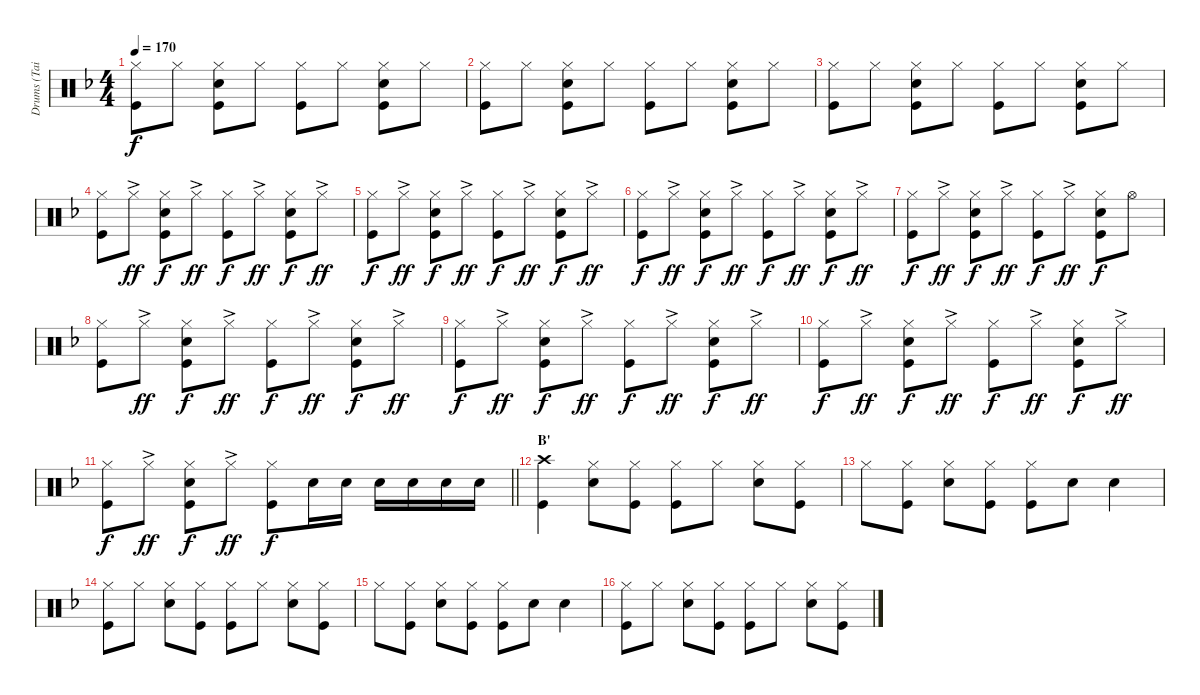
\track ("Drums (Tainaka Ritsu)" "Drums (Tai") {instrument percussion}
\staff {score}
\articulation defaults
\ts (4 4)
\tempo 170
\clef neutral
\ks f
("Hi-Hat (closed)" "Kick (hit)").8{dy f} "Hi-Hat (closed)".8 ("Hi-Hat (closed)" "Snare (hit) 2" "Kick (hit)").8 "Hi-Hat (closed)".8 ("Hi-Hat (closed)" "Kick (hit)").8 "Hi-Hat (closed)".8 ("Hi-Hat (closed)" "Snare (hit) 2" "Kick (hit)").8 "Hi-Hat (closed)".8 |
("Hi-Hat (closed)" "Kick (hit)").8 "Hi-Hat (closed)".8 ("Hi-Hat (closed)" "Snare (hit) 2" "Kick (hit)").8 "Hi-Hat (closed)".8 ("Hi-Hat (closed)" "Kick (hit)").8 "Hi-Hat (closed)".8 ("Hi-Hat (closed)" "Snare (hit) 2" "Kick (hit)").8 "Hi-Hat (closed)".8 |
("Hi-Hat (closed)" "Kick (hit)").8 "Hi-Hat (closed)".8 ("Hi-Hat (closed)" "Snare (hit) 2" "Kick (hit)").8 "Hi-Hat (closed)".8 ("Hi-Hat (closed)" "Kick (hit)").8 "Hi-Hat (closed)".8 ("Hi-Hat (closed)" "Snare (hit) 2" "Kick (hit)").8 "Hi-Hat (closed)".8 |
("Hi-Hat (closed)" "Kick (hit)").8 "Hi-Hat (closed)"{ac}.8{dy ff} ("Hi-Hat (closed)" "Snare (hit) 2" "Kick (hit)").8{dy f} "Hi-Hat (closed)"{ac}.8{dy ff} ("Hi-Hat (closed)" "Kick (hit)").8{dy f} "Hi-Hat (closed)"{ac}.8{dy ff} ("Hi-Hat (closed)" "Snare (hit) 2" "Kick (hit)").8{dy f} "Hi-Hat (closed)"{ac}.8{dy ff} |
("Hi-Hat (closed)" "Kick (hit)").8{dy f} "Hi-Hat (closed)"{ac}.8{dy ff} ("Hi-Hat (closed)" "Snare (hit) 2" "Kick (hit)").8{dy f} "Hi-Hat (closed)"{ac}.8{dy ff} ("Hi-Hat (closed)" "Kick (hit)").8{dy f} "Hi-Hat (closed)"{ac}.8{dy ff} ("Hi-Hat (closed)" "Snare (hit) 2" "Kick (hit)").8{dy f} "Hi-Hat (closed)"{ac}.8{dy ff} |
("Hi-Hat (closed)" "Kick (hit)").8{dy f} "Hi-Hat (closed)"{ac}.8{dy ff} ("Hi-Hat (closed)" "Snare (hit) 2" "Kick (hit)").8{dy f} "Hi-Hat (closed)"{ac}.8{dy ff} ("Hi-Hat (closed)" "Kick (hit)").8{dy f} "Hi-Hat (closed)"{ac}.8{dy ff} ("Hi-Hat (closed)" "Snare (hit) 2" "Kick (hit)").8{dy f} "Hi-Hat (closed)"{ac}.8{dy ff} |
("Hi-Hat (closed)" "Kick (hit)").8{dy f} "Hi-Hat (closed)"{ac}.8{dy ff} ("Hi-Hat (closed)" "Snare (hit) 2" "Kick (hit)").8{dy f} "Hi-Hat (closed)"{ac}.8{dy ff} ("Hi-Hat (closed)" "Kick (hit)").8{dy f} "Hi-Hat (closed)"{ac}.8{dy ff} ("Hi-Hat (closed)" "Snare (hit) 2" "Kick (hit)").8{dy f} "Hi-Hat (open)".8 |
("Hi-Hat (closed)" "Kick (hit)").8 "Hi-Hat (closed)"{ac}.8{dy ff} ("Hi-Hat (closed)" "Snare (hit) 2" "Kick (hit)").8{dy f} "Hi-Hat (closed)"{ac}.8{dy ff} ("Hi-Hat (closed)" "Kick (hit)").8{dy f} "Hi-Hat (closed)"{ac}.8{dy ff} ("Hi-Hat (closed)" "Snare (hit) 2" "Kick (hit)").8{dy f} "Hi-Hat (closed)"{ac}.8{dy ff} |
("Hi-Hat (closed)" "Kick (hit)").8{dy f} "Hi-Hat (closed)"{ac}.8{dy ff} ("Hi-Hat (closed)" "Snare (hit) 2" "Kick (hit)").8{dy f} "Hi-Hat (closed)"{ac}.8{dy ff} ("Hi-Hat (closed)" "Kick (hit)").8{dy f} "Hi-Hat (closed)"{ac}.8{dy ff} ("Hi-Hat (closed)" "Snare (hit) 2" "Kick (hit)").8{dy f} "Hi-Hat (closed)"{ac}.8{dy ff} |
("Hi-Hat (closed)" "Kick (hit)").8{dy f} "Hi-Hat (closed)"{ac}.8{dy ff} ("Hi-Hat (closed)" "Snare (hit) 2" "Kick (hit)").8{dy f} "Hi-Hat (closed)"{ac}.8{dy ff} ("Hi-Hat (closed)" "Kick (hit)").8{dy f} "Hi-Hat (closed)"{ac}.8{dy ff} ("Hi-Hat (closed)" "Snare (hit) 2" "Kick (hit)").8{dy f} "Hi-Hat (closed)"{ac}.8{dy ff} |
\barLineRight lightlight
("Hi-Hat (closed)" "Kick (hit)").8{dy f} "Hi-Hat (closed)"{ac}.8{dy ff} ("Hi-Hat (closed)" "Snare (hit) 2" "Kick (hit)").8{dy f} "Hi-Hat (closed)"{ac}.8{dy ff} ("Hi-Hat (closed)" "Kick (hit)").8{dy f} "Snare (hit) 2".16 "Snare (hit) 2".16 "Snare (hit) 2".16 "Snare (hit) 2".16 "Snare (hit) 2".16 "Snare (hit) 2".16 |
\section ("" "B'")
("Crash high (hit)" "Kick (hit)").4 ("Hi-Hat (closed)" "Snare (hit) 2").8 ("Hi-Hat (closed)" "Kick (hit)").8 ("Hi-Hat (closed)" "Kick (hit)").8 "Hi-Hat (closed)".8 ("Hi-Hat (closed)" "Snare (hit) 2").8 ("Hi-Hat (closed)" "Kick (hit)").8 |
"Hi-Hat (closed)".8 ("Hi-Hat (closed)" "Kick (hit)").8 ("Hi-Hat (closed)" "Snare (hit) 2").8 ("Hi-Hat (closed)" "Kick (hit)").8 ("Hi-Hat (closed)" "Kick (hit)").8 "Snare (hit) 2".8 "Snare (hit) 2".4 |
("Hi-Hat (closed)" "Kick (hit)").8 "Hi-Hat (closed)".8 ("Hi-Hat (closed)" "Snare (hit) 2").8 ("Hi-Hat (closed)" "Kick (hit)").8 ("Hi-Hat (closed)" "Kick (hit)").8 "Hi-Hat (closed)".8 ("Hi-Hat (closed)" "Snare (hit) 2").8 ("Hi-Hat (closed)" "Kick (hit)").8 |
"Hi-Hat (closed)".8 ("Hi-Hat (closed)" "Kick (hit)").8 ("Hi-Hat (closed)" "Snare (hit) 2").8 ("Hi-Hat (closed)" "Kick (hit)").8 ("Hi-Hat (closed)" "Kick (hit)").8 "Snare (hit) 2".8 "Snare (hit) 2".4 |
("Hi-Hat (closed)" "Kick (hit)").8 "Hi-Hat (closed)".8 ("Hi-Hat (closed)" "Snare (hit) 2").8 ("Hi-Hat (closed)" "Kick (hit)").8 ("Hi-Hat (closed)" "Kick (hit)").8 "Hi-Hat (closed)".8 ("Hi-Hat (closed)" "Snare (hit) 2").8 ("Hi-Hat (closed)" "Kick (hit)").8
